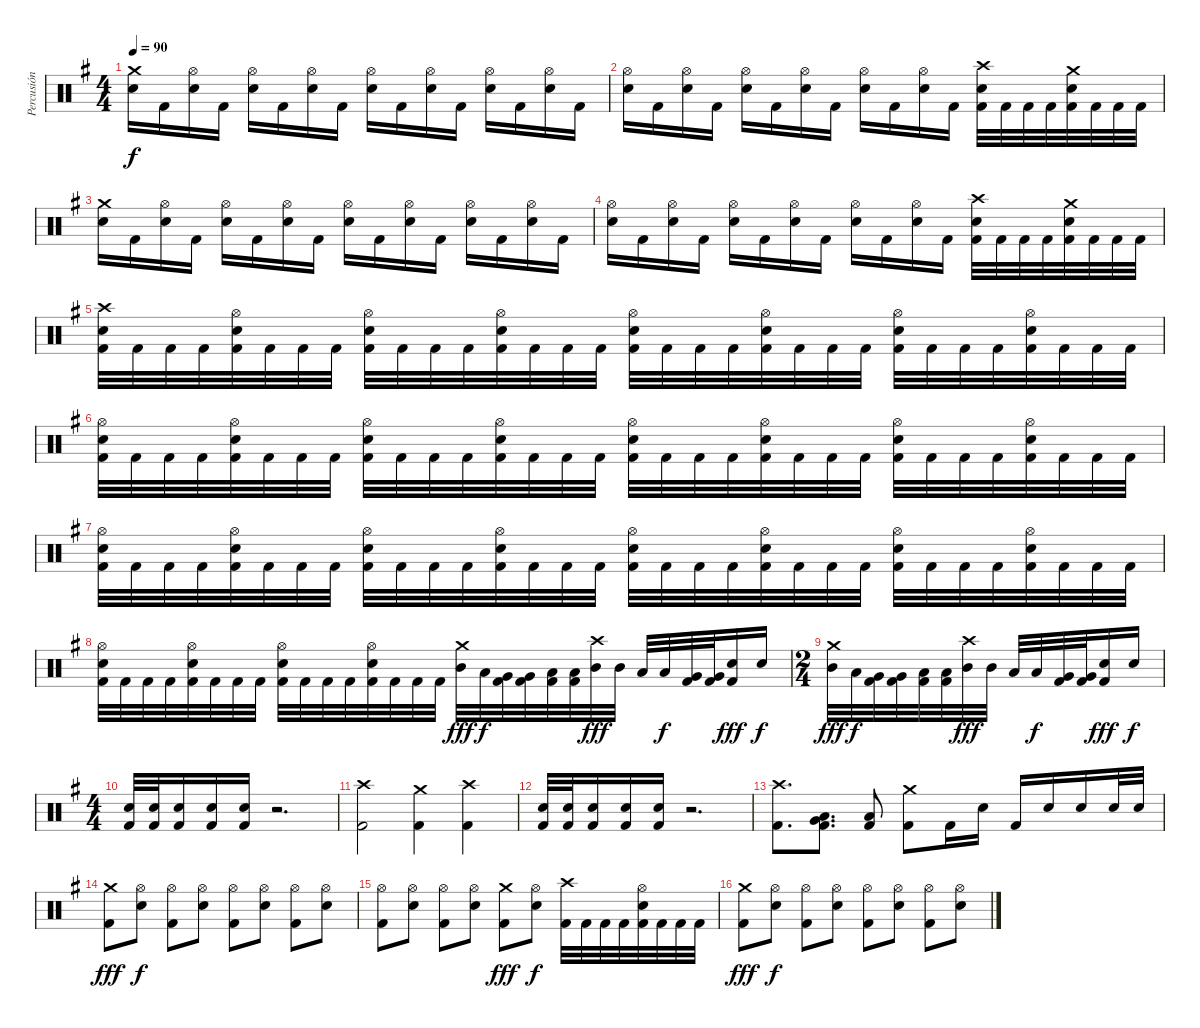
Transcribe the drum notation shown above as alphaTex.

\track ("Percusión" "Percusión") {instrument percussion}
\staff {score}
\articulation defaults
\ts (4 4)
\tempo 90
\clef neutral
\ks g
("Crash medium (hit)" "Electric Snare (hit)").16{dy f} "Kick (hit) 2".16 ("Hi-Hat (open)" "Electric Snare (hit)").16 "Kick (hit) 2".16 ("Hi-Hat (open)" "Electric Snare (hit)").16 "Kick (hit) 2".16 ("Hi-Hat (open)" "Electric Snare (hit)").16 "Kick (hit) 2".16 ("Hi-Hat (open)" "Electric Snare (hit)").16 "Kick (hit) 2".16 ("Hi-Hat (open)" "Electric Snare (hit)").16 "Kick (hit) 2".16 ("Hi-Hat (open)" "Electric Snare (hit)").16 "Kick (hit) 2".16 ("Hi-Hat (open)" "Electric Snare (hit)").16 "Kick (hit) 2".16 |
("Hi-Hat (open)" "Electric Snare (hit)").16 "Kick (hit) 2".16 ("Hi-Hat (open)" "Electric Snare (hit)").16 "Kick (hit) 2".16 ("Hi-Hat (open)" "Electric Snare (hit)").16 "Kick (hit) 2".16 ("Hi-Hat (open)" "Electric Snare (hit)").16 "Kick (hit) 2".16 ("Hi-Hat (open)" "Electric Snare (hit)").16 "Kick (hit) 2".16 ("Hi-Hat (open)" "Electric Snare (hit)").16 "Kick (hit) 2".16 ("Crash high (hit)" "Electric Snare (hit)" "Kick (hit) 2").32 "Kick (hit) 2".32 "Kick (hit) 2".32 "Kick (hit) 2".32 ("Crash medium (hit)" "Electric Snare (hit)" "Kick (hit) 2").32 "Kick (hit) 2".32 "Kick (hit) 2".32 "Kick (hit) 2".32 |
("Crash medium (hit)" "Electric Snare (hit)").16 "Kick (hit) 2".16 ("Hi-Hat (open)" "Electric Snare (hit)").16 "Kick (hit) 2".16 ("Hi-Hat (open)" "Electric Snare (hit)").16 "Kick (hit) 2".16 ("Hi-Hat (open)" "Electric Snare (hit)").16 "Kick (hit) 2".16 ("Hi-Hat (open)" "Electric Snare (hit)").16 "Kick (hit) 2".16 ("Hi-Hat (open)" "Electric Snare (hit)").16 "Kick (hit) 2".16 ("Hi-Hat (open)" "Electric Snare (hit)").16 "Kick (hit) 2".16 ("Hi-Hat (open)" "Electric Snare (hit)").16 "Kick (hit) 2".16 |
("Hi-Hat (open)" "Electric Snare (hit)").16 "Kick (hit) 2".16 ("Hi-Hat (open)" "Electric Snare (hit)").16 "Kick (hit) 2".16 ("Hi-Hat (open)" "Electric Snare (hit)").16 "Kick (hit) 2".16 ("Hi-Hat (open)" "Electric Snare (hit)").16 "Kick (hit) 2".16 ("Hi-Hat (open)" "Electric Snare (hit)").16 "Kick (hit) 2".16 ("Hi-Hat (open)" "Electric Snare (hit)").16 "Kick (hit) 2".16 ("Crash high (hit)" "Electric Snare (hit)" "Kick (hit) 2").32 "Kick (hit) 2".32 "Kick (hit) 2".32 "Kick (hit) 2".32 ("Crash medium (hit)" "Electric Snare (hit)" "Kick (hit) 2").32 "Kick (hit) 2".32 "Kick (hit) 2".32 "Kick (hit) 2".32 |
("Crash high (hit)" "Electric Snare (hit)" "Kick (hit) 2").32 "Kick (hit) 2".32 "Kick (hit) 2".32 "Kick (hit) 2".32 ("Hi-Hat (open)" "Electric Snare (hit)" "Kick (hit) 2").32 "Kick (hit) 2".32 "Kick (hit) 2".32 "Kick (hit) 2".32 ("Hi-Hat (open)" "Electric Snare (hit)" "Kick (hit) 2").32 "Kick (hit) 2".32 "Kick (hit) 2".32 "Kick (hit) 2".32 ("Hi-Hat (open)" "Electric Snare (hit)" "Kick (hit) 2").32 "Kick (hit) 2".32 "Kick (hit) 2".32 "Kick (hit) 2".32 ("Hi-Hat (open)" "Electric Snare (hit)" "Kick (hit) 2").32 "Kick (hit) 2".32 "Kick (hit) 2".32 "Kick (hit) 2".32 ("Hi-Hat (open)" "Electric Snare (hit)" "Kick (hit) 2").32 "Kick (hit) 2".32 "Kick (hit) 2".32 "Kick (hit) 2".32 ("Hi-Hat (open)" "Electric Snare (hit)" "Kick (hit) 2").32 "Kick (hit) 2".32 "Kick (hit) 2".32 "Kick (hit) 2".32 ("Hi-Hat (open)" "Electric Snare (hit)" "Kick (hit) 2").32 "Kick (hit) 2".32 "Kick (hit) 2".32 "Kick (hit) 2".32 |
("Hi-Hat (open)" "Electric Snare (hit)" "Kick (hit) 2").32 "Kick (hit) 2".32 "Kick (hit) 2".32 "Kick (hit) 2".32 ("Hi-Hat (open)" "Electric Snare (hit)" "Kick (hit) 2").32 "Kick (hit) 2".32 "Kick (hit) 2".32 "Kick (hit) 2".32 ("Hi-Hat (open)" "Electric Snare (hit)" "Kick (hit) 2").32 "Kick (hit) 2".32 "Kick (hit) 2".32 "Kick (hit) 2".32 ("Hi-Hat (open)" "Electric Snare (hit)" "Kick (hit) 2").32 "Kick (hit) 2".32 "Kick (hit) 2".32 "Kick (hit) 2".32 ("Hi-Hat (open)" "Electric Snare (hit)" "Kick (hit) 2").32 "Kick (hit) 2".32 "Kick (hit) 2".32 "Kick (hit) 2".32 ("Hi-Hat (open)" "Electric Snare (hit)" "Kick (hit) 2").32 "Kick (hit) 2".32 "Kick (hit) 2".32 "Kick (hit) 2".32 ("Hi-Hat (open)" "Electric Snare (hit)" "Kick (hit) 2").32 "Kick (hit) 2".32 "Kick (hit) 2".32 "Kick (hit) 2".32 ("Hi-Hat (open)" "Electric Snare (hit)" "Kick (hit) 2").32 "Kick (hit) 2".32 "Kick (hit) 2".32 "Kick (hit) 2".32 |
("Hi-Hat (open)" "Electric Snare (hit)" "Kick (hit) 2").32 "Kick (hit) 2".32 "Kick (hit) 2".32 "Kick (hit) 2".32 ("Hi-Hat (open)" "Electric Snare (hit)" "Kick (hit) 2").32 "Kick (hit) 2".32 "Kick (hit) 2".32 "Kick (hit) 2".32 ("Hi-Hat (open)" "Electric Snare (hit)" "Kick (hit) 2").32 "Kick (hit) 2".32 "Kick (hit) 2".32 "Kick (hit) 2".32 ("Hi-Hat (open)" "Electric Snare (hit)" "Kick (hit) 2").32 "Kick (hit) 2".32 "Kick (hit) 2".32 "Kick (hit) 2".32 ("Hi-Hat (open)" "Electric Snare (hit)" "Kick (hit) 2").32 "Kick (hit) 2".32 "Kick (hit) 2".32 "Kick (hit) 2".32 ("Hi-Hat (open)" "Electric Snare (hit)" "Kick (hit) 2").32 "Kick (hit) 2".32 "Kick (hit) 2".32 "Kick (hit) 2".32 ("Hi-Hat (open)" "Electric Snare (hit)" "Kick (hit) 2").32 "Kick (hit) 2".32 "Kick (hit) 2".32 "Kick (hit) 2".32 ("Hi-Hat (open)" "Electric Snare (hit)" "Kick (hit) 2").32 "Kick (hit) 2".32 "Kick (hit) 2".32 "Kick (hit) 2".32 |
("Hi-Hat (open)" "Electric Snare (hit)" "Kick (hit) 2").32 "Kick (hit) 2".32 "Kick (hit) 2".32 "Kick (hit) 2".32 ("Hi-Hat (open)" "Electric Snare (hit)" "Kick (hit) 2").32 "Kick (hit) 2".32 "Kick (hit) 2".32 "Kick (hit) 2".32 ("Hi-Hat (open)" "Electric Snare (hit)" "Kick (hit) 2").32 "Kick (hit) 2".32 "Kick (hit) 2".32 "Kick (hit) 2".32 ("Hi-Hat (open)" "Electric Snare (hit)" "Kick (hit) 2").32 "Kick (hit) 2".32 "Kick (hit) 2".32 "Kick (hit) 2".32 ("Crash medium (hit)" "Mid Tom (hit)").32{dy fff} "Low Tom (hit)".32{dy f} ("Very Low Tom (hit)" "Kick (hit) 2").32 ("Very Low Tom (hit)" "Kick (hit) 2").32 ("Low Floor Tom (hit)" "Kick (hit) 2").32 ("Low Floor Tom (hit)" "Kick (hit) 2").32 ("Crash high (hit)" "Mid Tom (hit)").32{dy fff} "Mid Tom (hit)".32 "Low Tom (hit)".32 "Low Tom (hit)".32{dy f} ("Very Low Tom (hit)" "Kick (hit) 2").32 ("Very Low Tom (hit)" "Kick (hit) 2").32 ("Electric Snare (hit)" "Kick (hit) 2").16{dy fff} "Electric Snare (hit)".16{dy f} |
\ts (2 4)
("Crash medium (hit)" "Mid Tom (hit)").32{dy fff} "Low Tom (hit)".32{dy f} ("Very Low Tom (hit)" "Kick (hit) 2").32 ("Very Low Tom (hit)" "Kick (hit) 2").32 ("Low Floor Tom (hit)" "Kick (hit) 2").32 ("Low Floor Tom (hit)" "Kick (hit) 2").32 ("Crash high (hit)" "Mid Tom (hit)").32{dy fff} "Mid Tom (hit)".32 "Low Tom (hit)".32 "Low Tom (hit)".32{dy f} ("Very Low Tom (hit)" "Kick (hit) 2").32 ("Very Low Tom (hit)" "Kick (hit) 2").32 ("Electric Snare (hit)" "Kick (hit) 2").16{dy fff} "Electric Snare (hit)".16{dy f} |
\ts (4 4)
("Electric Snare (hit)" "Kick (hit) 2").32 ("Electric Snare (hit)" "Kick (hit) 2").32 ("Electric Snare (hit)" "Kick (hit) 2").16 ("Electric Snare (hit)" "Kick (hit) 2").16 ("Electric Snare (hit)" "Kick (hit) 2").16 r.2{d} |
("Crash high (hit)" "Kick (hit) 2").2 ("Crash medium (hit)" "Kick (hit) 2").4 ("Crash high (hit)" "Kick (hit) 2").4 |
("Electric Snare (hit)" "Kick (hit) 2").32 ("Electric Snare (hit)" "Kick (hit) 2").32 ("Electric Snare (hit)" "Kick (hit) 2").16 ("Electric Snare (hit)" "Kick (hit) 2").16 ("Electric Snare (hit)" "Kick (hit) 2").16 r.2{d} |
("Crash high (hit)" "Kick (hit) 2").8{d} ("Very Low Tom (hit)" "Low Floor Tom (hit)" "Kick (hit) 2").8{d} ("Low Floor Tom (hit)" "Kick (hit) 2").8 ("Crash medium (hit)" "Kick (hit) 2").8 "Kick (hit) 2".16 "Electric Snare (hit)".16 "Kick (hit) 2".16 "Electric Snare (hit)".16 "Electric Snare (hit)".16 "Electric Snare (hit)".32 "Electric Snare (hit)".32 |
("Crash medium (hit)" "Kick (hit) 2").8{dy fff} ("Hi-Hat (open)" "Electric Snare (hit)").8{dy f} ("Hi-Hat (open)" "Kick (hit) 2").8 ("Hi-Hat (open)" "Electric Snare (hit)").8 ("Hi-Hat (open)" "Kick (hit) 2").8 ("Hi-Hat (open)" "Electric Snare (hit)").8 ("Hi-Hat (open)" "Kick (hit) 2").8 ("Hi-Hat (open)" "Electric Snare (hit)").8 |
("Hi-Hat (open)" "Kick (hit) 2").8 ("Hi-Hat (open)" "Electric Snare (hit)").8 ("Hi-Hat (open)" "Kick (hit) 2").8 ("Hi-Hat (open)" "Electric Snare (hit)").8 ("Crash medium (hit)" "Kick (hit) 2").8{dy fff} ("Hi-Hat (open)" "Electric Snare (hit)").8{dy f} ("Crash high (hit)" "Kick (hit) 2").32 "Kick (hit) 2".32 "Kick (hit) 2".32 "Kick (hit) 2".32 ("Hi-Hat (open)" "Electric Snare (hit)" "Kick (hit) 2").32 "Kick (hit) 2".32 "Kick (hit) 2".32 "Kick (hit) 2".32 |
("Crash medium (hit)" "Kick (hit) 2").8{dy fff} ("Hi-Hat (open)" "Electric Snare (hit)").8{dy f} ("Hi-Hat (open)" "Kick (hit) 2").8 ("Hi-Hat (open)" "Electric Snare (hit)").8 ("Hi-Hat (open)" "Kick (hit) 2").8 ("Hi-Hat (open)" "Electric Snare (hit)").8 ("Hi-Hat (open)" "Kick (hit) 2").8 ("Hi-Hat (open)" "Electric Snare (hit)").8
